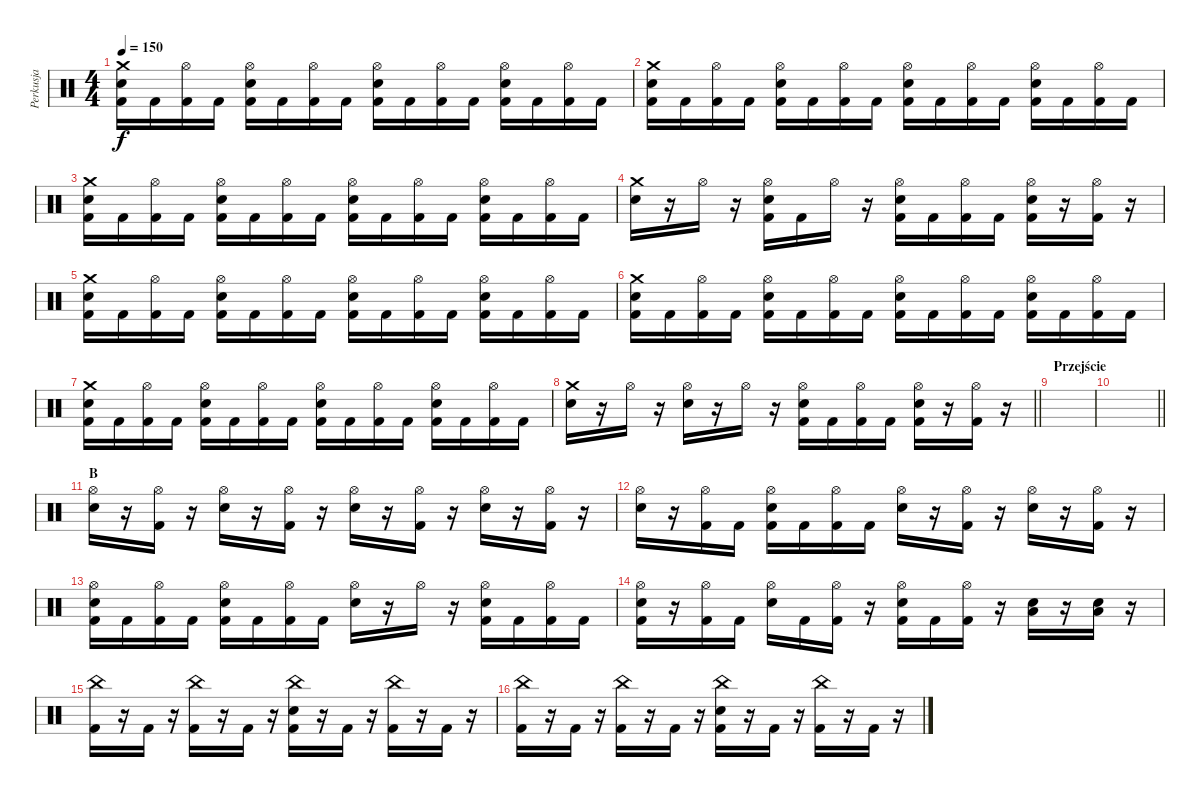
\track ("Perkusja" "Perkusja") {instrument percussion}
\staff {score}
\articulation defaults
\ts (4 4)
\tempo 150
\clef neutral
\ks c
("Crash medium (hit)" "Snare (hit) 2" "Kick (hit) 2").16{dy f} "Kick (hit) 2".16 ("Hi-Hat (open)" "Kick (hit) 2").16 "Kick (hit) 2".16 ("Hi-Hat (open)" "Snare (hit) 2" "Kick (hit) 2").16 "Kick (hit) 2".16 ("Hi-Hat (open)" "Kick (hit) 2").16 "Kick (hit) 2".16 ("Hi-Hat (open)" "Snare (hit) 2" "Kick (hit) 2").16 "Kick (hit) 2".16 ("Hi-Hat (open)" "Kick (hit) 2").16 "Kick (hit) 2".16 ("Hi-Hat (open)" "Snare (hit) 2" "Kick (hit) 2").16 "Kick (hit) 2".16 ("Hi-Hat (open)" "Kick (hit) 2").16 "Kick (hit) 2".16 |
("Crash medium (hit)" "Snare (hit) 2" "Kick (hit) 2").16 "Kick (hit) 2".16 ("Hi-Hat (open)" "Kick (hit) 2").16 "Kick (hit) 2".16 ("Hi-Hat (open)" "Snare (hit) 2" "Kick (hit) 2").16 "Kick (hit) 2".16 ("Hi-Hat (open)" "Kick (hit) 2").16 "Kick (hit) 2".16 ("Hi-Hat (open)" "Snare (hit) 2" "Kick (hit) 2").16 "Kick (hit) 2".16 ("Hi-Hat (open)" "Kick (hit) 2").16 "Kick (hit) 2".16 ("Hi-Hat (open)" "Snare (hit) 2" "Kick (hit) 2").16 "Kick (hit) 2".16 ("Hi-Hat (open)" "Kick (hit) 2").16 "Kick (hit) 2".16 |
("Crash medium (hit)" "Snare (hit) 2" "Kick (hit) 2").16 "Kick (hit) 2".16 ("Hi-Hat (open)" "Kick (hit) 2").16 "Kick (hit) 2".16 ("Hi-Hat (open)" "Snare (hit) 2" "Kick (hit) 2").16 "Kick (hit) 2".16 ("Hi-Hat (open)" "Kick (hit) 2").16 "Kick (hit) 2".16 ("Hi-Hat (open)" "Snare (hit) 2" "Kick (hit) 2").16 "Kick (hit) 2".16 ("Hi-Hat (open)" "Kick (hit) 2").16 "Kick (hit) 2".16 ("Hi-Hat (open)" "Snare (hit) 2" "Kick (hit) 2").16 "Kick (hit) 2".16 ("Hi-Hat (open)" "Kick (hit) 2").16 "Kick (hit) 2".16 |
("Crash medium (hit)" "Snare (hit) 2").16 r.16 "Hi-Hat (open)".16 r.16 ("Hi-Hat (open)" "Snare (hit) 2" "Kick (hit) 2").16 "Kick (hit) 2".16 "Hi-Hat (open)".16 r.16 ("Hi-Hat (open)" "Snare (hit) 2" "Kick (hit) 2").16 "Kick (hit) 2".16 ("Hi-Hat (open)" "Kick (hit) 2").16 "Kick (hit) 2".16 ("Hi-Hat (open)" "Snare (hit) 2" "Kick (hit) 2").16 r.16 ("Hi-Hat (open)" "Kick (hit) 2").16 r.16 |
("Crash medium (hit)" "Snare (hit) 2" "Kick (hit) 2").16 "Kick (hit) 2".16 ("Hi-Hat (open)" "Kick (hit) 2").16 "Kick (hit) 2".16 ("Hi-Hat (open)" "Snare (hit) 2" "Kick (hit) 2").16 "Kick (hit) 2".16 ("Hi-Hat (open)" "Kick (hit) 2").16 "Kick (hit) 2".16 ("Hi-Hat (open)" "Snare (hit) 2" "Kick (hit) 2").16 "Kick (hit) 2".16 ("Hi-Hat (open)" "Kick (hit) 2").16 "Kick (hit) 2".16 ("Hi-Hat (open)" "Snare (hit) 2" "Kick (hit) 2").16 "Kick (hit) 2".16 ("Hi-Hat (open)" "Kick (hit) 2").16 "Kick (hit) 2".16 |
("Crash medium (hit)" "Snare (hit) 2" "Kick (hit) 2").16 "Kick (hit) 2".16 ("Hi-Hat (open)" "Kick (hit) 2").16 "Kick (hit) 2".16 ("Hi-Hat (open)" "Snare (hit) 2" "Kick (hit) 2").16 "Kick (hit) 2".16 ("Hi-Hat (open)" "Kick (hit) 2").16 "Kick (hit) 2".16 ("Hi-Hat (open)" "Snare (hit) 2" "Kick (hit) 2").16 "Kick (hit) 2".16 ("Hi-Hat (open)" "Kick (hit) 2").16 "Kick (hit) 2".16 ("Hi-Hat (open)" "Snare (hit) 2" "Kick (hit) 2").16 "Kick (hit) 2".16 ("Hi-Hat (open)" "Kick (hit) 2").16 "Kick (hit) 2".16 |
("Crash medium (hit)" "Snare (hit) 2" "Kick (hit) 2").16 "Kick (hit) 2".16 ("Hi-Hat (open)" "Kick (hit) 2").16 "Kick (hit) 2".16 ("Hi-Hat (open)" "Snare (hit) 2" "Kick (hit) 2").16 "Kick (hit) 2".16 ("Hi-Hat (open)" "Kick (hit) 2").16 "Kick (hit) 2".16 ("Hi-Hat (open)" "Snare (hit) 2" "Kick (hit) 2").16 "Kick (hit) 2".16 ("Hi-Hat (open)" "Kick (hit) 2").16 "Kick (hit) 2".16 ("Hi-Hat (open)" "Snare (hit) 2" "Kick (hit) 2").16 "Kick (hit) 2".16 ("Hi-Hat (open)" "Kick (hit) 2").16 "Kick (hit) 2".16 |
\barLineRight lightlight
("Crash medium (hit)" "Snare (hit) 2").16 r.16 "Hi-Hat (open)".16 r.16 ("Hi-Hat (open)" "Snare (hit) 2").16 r.16 "Hi-Hat (open)".16 r.16 ("Hi-Hat (open)" "Snare (hit) 2" "Kick (hit) 2").16 "Kick (hit) 2".16 ("Hi-Hat (open)" "Kick (hit) 2").16 "Kick (hit) 2".16 ("Hi-Hat (open)" "Snare (hit) 2" "Kick (hit) 2").16 r.16 ("Hi-Hat (open)" "Kick (hit) 2").16 r.16 |
\section ("" "Przejście")
|
\barLineRight lightlight
|
\section ("" "B")
("Hi-Hat (open)" "Snare (hit) 2").16 r.16 ("Hi-Hat (open)" "Kick (hit) 2").16 r.16 ("Hi-Hat (open)" "Snare (hit) 2").16 r.16 ("Hi-Hat (open)" "Kick (hit) 2").16 r.16 ("Hi-Hat (open)" "Snare (hit) 2").16 r.16 ("Hi-Hat (open)" "Kick (hit) 2").16 r.16 ("Hi-Hat (open)" "Snare (hit) 2").16 r.16 ("Hi-Hat (open)" "Kick (hit) 2").16 r.16 |
("Hi-Hat (open)" "Snare (hit) 2").16 r.16 ("Hi-Hat (open)" "Kick (hit) 2").16 "Kick (hit) 2".16 ("Hi-Hat (open)" "Snare (hit) 2" "Kick (hit) 2").16 "Kick (hit) 2".16 ("Hi-Hat (open)" "Kick (hit) 2").16 "Kick (hit) 2".16 ("Hi-Hat (open)" "Snare (hit) 2").16 r.16 ("Hi-Hat (open)" "Kick (hit) 2").16 r.16 ("Hi-Hat (open)" "Snare (hit) 2").16 r.16 ("Hi-Hat (open)" "Kick (hit) 2").16 r.16 |
("Hi-Hat (open)" "Snare (hit) 2" "Kick (hit) 2").16 "Kick (hit) 2".16 ("Hi-Hat (open)" "Kick (hit) 2").16 "Kick (hit) 2".16 ("Hi-Hat (open)" "Snare (hit) 2" "Kick (hit) 2").16 "Kick (hit) 2".16 ("Hi-Hat (open)" "Kick (hit) 2").16 "Kick (hit) 2".16 ("Hi-Hat (open)" "Snare (hit) 2").16 r.16 "Hi-Hat (open)".16 r.16 ("Hi-Hat (open)" "Snare (hit) 2" "Kick (hit) 2").16 "Kick (hit) 2".16 ("Hi-Hat (open)" "Kick (hit) 2").16 "Kick (hit) 2".16 |
("Hi-Hat (open)" "Snare (hit) 2" "Kick (hit) 2").16 r.16 ("Hi-Hat (open)" "Kick (hit) 2").16 "Kick (hit) 2".16 ("Hi-Hat (open)" "Snare (hit) 2").16 "Kick (hit) 2".16 ("Hi-Hat (open)" "Kick (hit) 2").16 r.16 ("Hi-Hat (open)" "Snare (hit) 2" "Kick (hit) 2").16 "Kick (hit) 2".16 ("Hi-Hat (open)" "Kick (hit) 2").16 r.16 ("Snare (hit) 2" "Low Floor Tom (hit)").16 r.16 ("Snare (hit) 2" "Low Floor Tom (hit)").16 r.16 |
("China (hit)" "Kick (hit) 2").16 r.16 "Kick (hit) 2".16 r.16 ("China (hit)" "Kick (hit) 2").16 r.16 "Kick (hit) 2".16 r.16 ("China (hit)" "Snare (hit) 2" "Kick (hit) 2").16 r.16 "Kick (hit) 2".16 r.16 ("China (hit)" "Kick (hit) 2").16 r.16 "Kick (hit) 2".16 r.16 |
("China (hit)" "Kick (hit) 2").16 r.16 "Kick (hit) 2".16 r.16 ("China (hit)" "Kick (hit) 2").16 r.16 "Kick (hit) 2".16 r.16 ("China (hit)" "Snare (hit) 2" "Kick (hit) 2").16 r.16 "Kick (hit) 2".16 r.16 ("China (hit)" "Kick (hit) 2").16 r.16 "Kick (hit) 2".16 r.16
